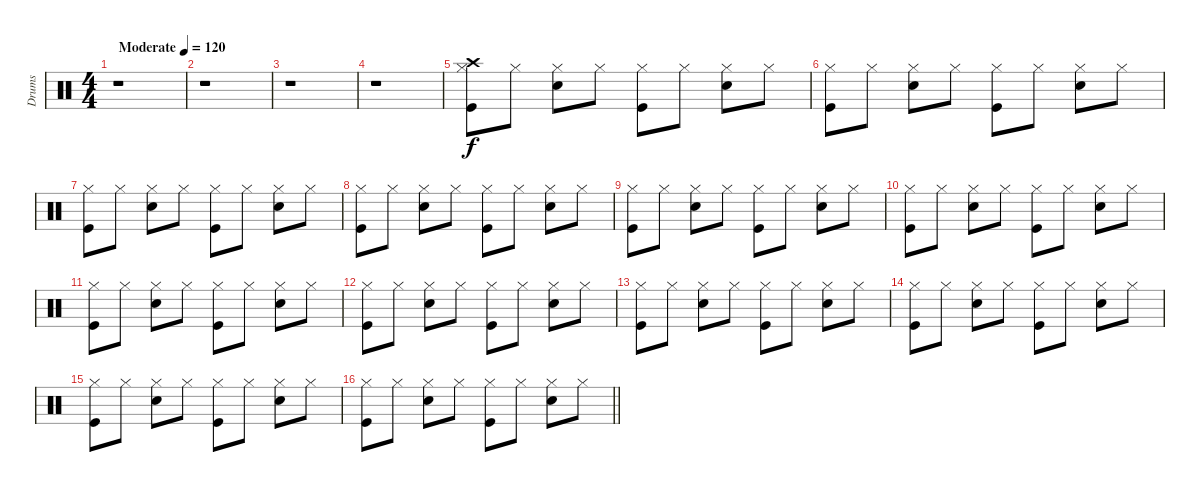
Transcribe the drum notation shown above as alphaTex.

\track ("Drums" "Drums") {instrument percussion}
\staff {score}
\articulation defaults
\ts (4 4)
\tempo (120 "Moderate")
\clef neutral
\ks c
r.1{dy f} |
r.1 |
r.1 |
r.1 |
("Crash high (hit)" "Hi-Hat (closed)" "Kick (hit)").8 "Hi-Hat (closed)".8 ("Hi-Hat (closed)" "Snare (hit) 2").8 "Hi-Hat (closed)".8 ("Hi-Hat (closed)" "Kick (hit)").8 "Hi-Hat (closed)".8 ("Hi-Hat (closed)" "Snare (hit) 2").8 "Hi-Hat (closed)".8 |
("Hi-Hat (closed)" "Kick (hit)").8 "Hi-Hat (closed)".8 ("Hi-Hat (closed)" "Snare (hit) 2").8 "Hi-Hat (closed)".8 ("Hi-Hat (closed)" "Kick (hit)").8 "Hi-Hat (closed)".8 ("Hi-Hat (closed)" "Snare (hit) 2").8 "Hi-Hat (closed)".8 |
("Hi-Hat (closed)" "Kick (hit)").8 "Hi-Hat (closed)".8 ("Hi-Hat (closed)" "Snare (hit) 2").8 "Hi-Hat (closed)".8 ("Hi-Hat (closed)" "Kick (hit)").8 "Hi-Hat (closed)".8 ("Hi-Hat (closed)" "Snare (hit) 2").8 "Hi-Hat (closed)".8 |
("Hi-Hat (closed)" "Kick (hit)").8 "Hi-Hat (closed)".8 ("Hi-Hat (closed)" "Snare (hit) 2").8 "Hi-Hat (closed)".8 ("Hi-Hat (closed)" "Kick (hit)").8 "Hi-Hat (closed)".8 ("Hi-Hat (closed)" "Snare (hit) 2").8 "Hi-Hat (closed)".8 |
("Hi-Hat (closed)" "Kick (hit)").8 "Hi-Hat (closed)".8 ("Hi-Hat (closed)" "Snare (hit) 2").8 "Hi-Hat (closed)".8 ("Hi-Hat (closed)" "Kick (hit)").8 "Hi-Hat (closed)".8 ("Hi-Hat (closed)" "Snare (hit) 2").8 "Hi-Hat (closed)".8 |
("Hi-Hat (closed)" "Kick (hit)").8 "Hi-Hat (closed)".8 ("Hi-Hat (closed)" "Snare (hit) 2").8 "Hi-Hat (closed)".8 ("Hi-Hat (closed)" "Kick (hit)").8 "Hi-Hat (closed)".8 ("Hi-Hat (closed)" "Snare (hit) 2").8 "Hi-Hat (closed)".8 |
("Hi-Hat (closed)" "Kick (hit)").8 "Hi-Hat (closed)".8 ("Hi-Hat (closed)" "Snare (hit) 2").8 "Hi-Hat (closed)".8 ("Hi-Hat (closed)" "Kick (hit)").8 "Hi-Hat (closed)".8 ("Hi-Hat (closed)" "Snare (hit) 2").8 "Hi-Hat (closed)".8 |
("Hi-Hat (closed)" "Kick (hit)").8 "Hi-Hat (closed)".8 ("Hi-Hat (closed)" "Snare (hit) 2").8 "Hi-Hat (closed)".8 ("Hi-Hat (closed)" "Kick (hit)").8 "Hi-Hat (closed)".8 ("Hi-Hat (closed)" "Snare (hit) 2").8 "Hi-Hat (closed)".8 |
("Hi-Hat (closed)" "Kick (hit)").8 "Hi-Hat (closed)".8 ("Hi-Hat (closed)" "Snare (hit) 2").8 "Hi-Hat (closed)".8 ("Hi-Hat (closed)" "Kick (hit)").8 "Hi-Hat (closed)".8 ("Hi-Hat (closed)" "Snare (hit) 2").8 "Hi-Hat (closed)".8 |
("Hi-Hat (closed)" "Kick (hit)").8 "Hi-Hat (closed)".8 ("Hi-Hat (closed)" "Snare (hit) 2").8 "Hi-Hat (closed)".8 ("Hi-Hat (closed)" "Kick (hit)").8 "Hi-Hat (closed)".8 ("Hi-Hat (closed)" "Snare (hit) 2").8 "Hi-Hat (closed)".8 |
("Hi-Hat (closed)" "Kick (hit)").8 "Hi-Hat (closed)".8 ("Hi-Hat (closed)" "Snare (hit) 2").8 "Hi-Hat (closed)".8 ("Hi-Hat (closed)" "Kick (hit)").8 "Hi-Hat (closed)".8 ("Hi-Hat (closed)" "Snare (hit) 2").8 "Hi-Hat (closed)".8 |
\barLineRight lightlight
("Hi-Hat (closed)" "Kick (hit)").8 "Hi-Hat (closed)".8 ("Hi-Hat (closed)" "Snare (hit) 2").8 "Hi-Hat (closed)".8 ("Hi-Hat (closed)" "Kick (hit)").8 "Hi-Hat (closed)".8 ("Hi-Hat (closed)" "Snare (hit) 2").8 "Hi-Hat (closed)".8
